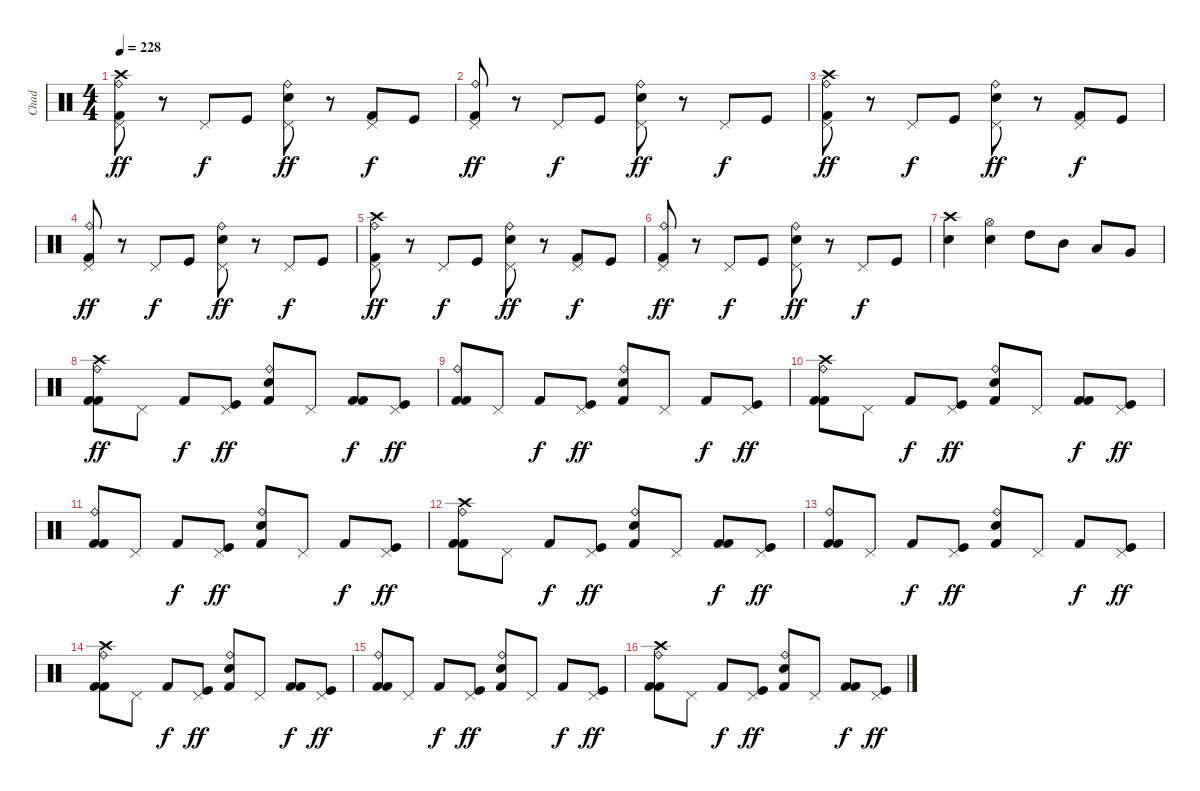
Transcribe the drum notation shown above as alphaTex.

\track ("Chad" "Chad") {instrument percussion}
\staff {score}
\articulation defaults
\ts (4 4)
\tempo 228
\clef neutral
\ks c
("Crash high (hit)" "Ride (bell)" "Kick (hit) 2" "Pedal Hi-Hat (hit)").8{dy ff} r.8 "Pedal Hi-Hat (hit)".8{dy f} "Kick (hit)".8 ("Ride (bell)" "Electric Snare (hit)" "Pedal Hi-Hat (hit)").8{dy ff} r.8 ("Kick (hit) 2" "Pedal Hi-Hat (hit)").8{dy f} "Kick (hit)".8 |
("Ride (bell)" "Kick (hit) 2" "Pedal Hi-Hat (hit)").8{dy ff} r.8 "Pedal Hi-Hat (hit)".8{dy f} "Kick (hit)".8 ("Ride (bell)" "Electric Snare (hit)" "Pedal Hi-Hat (hit)").8{dy ff} r.8 "Pedal Hi-Hat (hit)".8{dy f} "Kick (hit)".8 |
("Crash high (hit)" "Ride (bell)" "Kick (hit) 2" "Pedal Hi-Hat (hit)").8{dy ff} r.8 "Pedal Hi-Hat (hit)".8{dy f} "Kick (hit)".8 ("Ride (bell)" "Electric Snare (hit)" "Pedal Hi-Hat (hit)").8{dy ff} r.8 ("Kick (hit) 2" "Pedal Hi-Hat (hit)").8{dy f} "Kick (hit)".8 |
("Ride (bell)" "Kick (hit) 2" "Pedal Hi-Hat (hit)").8{dy ff} r.8 "Pedal Hi-Hat (hit)".8{dy f} "Kick (hit)".8 ("Ride (bell)" "Electric Snare (hit)" "Pedal Hi-Hat (hit)").8{dy ff} r.8 "Pedal Hi-Hat (hit)".8{dy f} "Kick (hit)".8 |
("Crash high (hit)" "Ride (bell)" "Kick (hit) 2" "Pedal Hi-Hat (hit)").8{dy ff} r.8 "Pedal Hi-Hat (hit)".8{dy f} "Kick (hit)".8 ("Ride (bell)" "Electric Snare (hit)" "Pedal Hi-Hat (hit)").8{dy ff} r.8 ("Kick (hit) 2" "Pedal Hi-Hat (hit)").8{dy f} "Kick (hit)".8 |
("Ride (bell)" "Kick (hit) 2" "Pedal Hi-Hat (hit)").8{dy ff} r.8 "Pedal Hi-Hat (hit)".8{dy f} "Kick (hit)".8 ("Ride (bell)" "Electric Snare (hit)" "Pedal Hi-Hat (hit)").8{dy ff} r.8 "Pedal Hi-Hat (hit)".8{dy f} "Kick (hit)".8 |
("Crash high (hit)" "Electric Snare (hit)").4 ("Hi-Hat (open)" "Electric Snare (hit)").4 "High Tom (hit)".8 "Mid Tom (hit)".8 "Low Tom (hit)".8 "Very Low Tom (hit)".8 |
("Crash high (hit)" "Ride (bell)" "Kick (hit) 2" "Kick (hit) 2").8{dy ff} "Pedal Hi-Hat (hit)".8 "Kick (hit) 2".8{dy f} ("Kick (hit)" "Pedal Hi-Hat (hit)").8{dy ff} ("Ride (bell)" "Electric Snare (hit)" "Kick (hit) 2").8 "Pedal Hi-Hat (hit)".8 ("Kick (hit) 2" "Kick (hit) 2").8{dy f} ("Kick (hit)" "Pedal Hi-Hat (hit)").8{dy ff} |
("Ride (bell)" "Kick (hit) 2" "Kick (hit) 2").8 "Pedal Hi-Hat (hit)".8 "Kick (hit) 2".8{dy f} ("Kick (hit)" "Pedal Hi-Hat (hit)").8{dy ff} ("Ride (bell)" "Electric Snare (hit)" "Kick (hit) 2").8 "Pedal Hi-Hat (hit)".8 "Kick (hit) 2".8{dy f} ("Kick (hit)" "Pedal Hi-Hat (hit)").8{dy ff} |
("Crash high (hit)" "Ride (bell)" "Kick (hit) 2" "Kick (hit) 2").8 "Pedal Hi-Hat (hit)".8 "Kick (hit) 2".8{dy f} ("Kick (hit)" "Pedal Hi-Hat (hit)").8{dy ff} ("Ride (bell)" "Electric Snare (hit)" "Kick (hit) 2").8 "Pedal Hi-Hat (hit)".8 ("Kick (hit) 2" "Kick (hit) 2").8{dy f} ("Kick (hit)" "Pedal Hi-Hat (hit)").8{dy ff} |
("Ride (bell)" "Kick (hit) 2" "Kick (hit) 2").8 "Pedal Hi-Hat (hit)".8 "Kick (hit) 2".8{dy f} ("Kick (hit)" "Pedal Hi-Hat (hit)").8{dy ff} ("Ride (bell)" "Electric Snare (hit)" "Kick (hit) 2").8 "Pedal Hi-Hat (hit)".8 "Kick (hit) 2".8{dy f} ("Kick (hit)" "Pedal Hi-Hat (hit)").8{dy ff} |
("Crash high (hit)" "Ride (bell)" "Kick (hit) 2" "Kick (hit) 2").8 "Pedal Hi-Hat (hit)".8 "Kick (hit) 2".8{dy f} ("Kick (hit)" "Pedal Hi-Hat (hit)").8{dy ff} ("Ride (bell)" "Electric Snare (hit)" "Kick (hit) 2").8 "Pedal Hi-Hat (hit)".8 ("Kick (hit) 2" "Kick (hit) 2").8{dy f} ("Kick (hit)" "Pedal Hi-Hat (hit)").8{dy ff} |
("Ride (bell)" "Kick (hit) 2" "Kick (hit) 2").8 "Pedal Hi-Hat (hit)".8 "Kick (hit) 2".8{dy f} ("Kick (hit)" "Pedal Hi-Hat (hit)").8{dy ff} ("Ride (bell)" "Electric Snare (hit)" "Kick (hit) 2").8 "Pedal Hi-Hat (hit)".8 "Kick (hit) 2".8{dy f} ("Kick (hit)" "Pedal Hi-Hat (hit)").8{dy ff} |
("Crash high (hit)" "Ride (bell)" "Kick (hit) 2" "Kick (hit) 2").8 "Pedal Hi-Hat (hit)".8 "Kick (hit) 2".8{dy f} ("Kick (hit)" "Pedal Hi-Hat (hit)").8{dy ff} ("Ride (bell)" "Electric Snare (hit)" "Kick (hit) 2").8 "Pedal Hi-Hat (hit)".8 ("Kick (hit) 2" "Kick (hit) 2").8{dy f} ("Kick (hit)" "Pedal Hi-Hat (hit)").8{dy ff} |
("Ride (bell)" "Kick (hit) 2" "Kick (hit) 2").8 "Pedal Hi-Hat (hit)".8 "Kick (hit) 2".8{dy f} ("Kick (hit)" "Pedal Hi-Hat (hit)").8{dy ff} ("Ride (bell)" "Electric Snare (hit)" "Kick (hit) 2").8 "Pedal Hi-Hat (hit)".8 "Kick (hit) 2".8{dy f} ("Kick (hit)" "Pedal Hi-Hat (hit)").8{dy ff} |
("Crash high (hit)" "Ride (bell)" "Kick (hit) 2" "Kick (hit) 2").8 "Pedal Hi-Hat (hit)".8 "Kick (hit) 2".8{dy f} ("Kick (hit)" "Pedal Hi-Hat (hit)").8{dy ff} ("Ride (bell)" "Electric Snare (hit)" "Kick (hit) 2").8 "Pedal Hi-Hat (hit)".8 ("Kick (hit) 2" "Kick (hit) 2").8{dy f} ("Kick (hit)" "Pedal Hi-Hat (hit)").8{dy ff}
